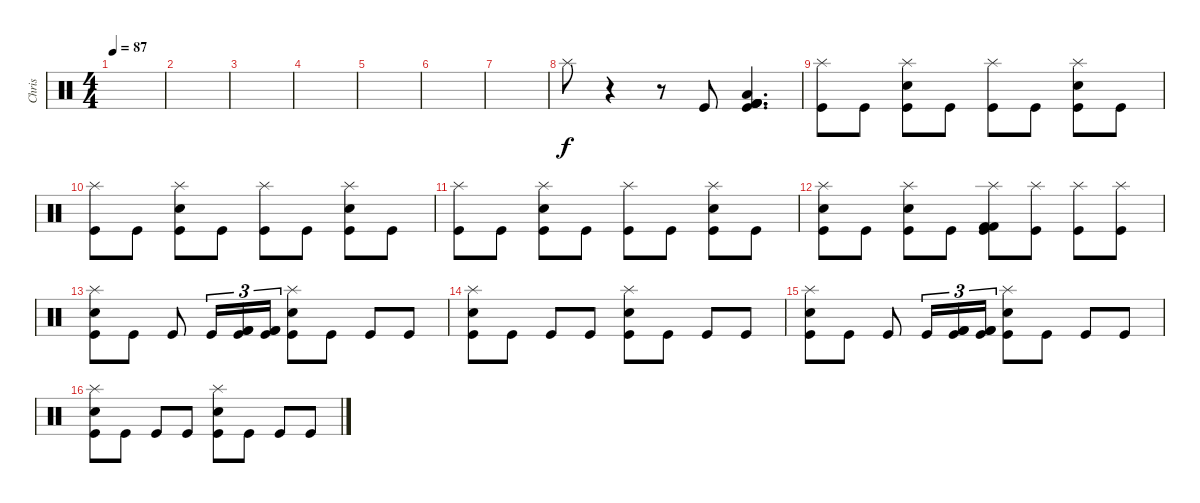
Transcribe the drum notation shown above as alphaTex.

\track ("Chris" "Chris") {instrument percussion}
\staff {score}
\articulation defaults
\ts (4 4)
\tempo 87
\clef neutral
\ks c
|
|
|
|
|
|
|
"Splash (hit)".8 r.4 r.8 "Kick (hit)".8 ("Kick (hit)" "Kick (hit) 2" "Kick (hit) 2" "Low Floor Tom (hit)" "Kick (hit) 2" "Kick (hit) 2").4{d} |
("Kick (hit)" "Splash (hit)").8 "Kick (hit)".8 ("Kick (hit)" "Splash (hit)" "Snare (hit) 2").8 "Kick (hit)".8 ("Kick (hit)" "Splash (hit)").8 "Kick (hit)".8 ("Kick (hit)" "Splash (hit)" "Snare (hit) 2").8 "Kick (hit)".8 |
("Kick (hit)" "Splash (hit)").8 "Kick (hit)".8 ("Kick (hit)" "Splash (hit)" "Snare (hit) 2").8 "Kick (hit)".8 ("Kick (hit)" "Splash (hit)").8 "Kick (hit)".8 ("Kick (hit)" "Splash (hit)" "Snare (hit) 2").8 "Kick (hit)".8 |
("Kick (hit)" "Splash (hit)").8 "Kick (hit)".8 ("Kick (hit)" "Splash (hit)" "Snare (hit) 2").8 "Kick (hit)".8 ("Kick (hit)" "Splash (hit)").8 "Kick (hit)".8 ("Kick (hit)" "Splash (hit)" "Snare (hit) 2").8 "Kick (hit)".8 |
("Kick (hit)" "Splash (hit)" "Snare (hit) 2").8 "Kick (hit)".8 ("Kick (hit)" "Splash (hit)" "Snare (hit) 2").8 "Kick (hit)".8 ("Kick (hit)" "Splash (hit)" "Kick (hit) 2" "Kick (hit) 2").8 ("Kick (hit)" "Splash (hit)").8 ("Kick (hit)" "Splash (hit)").8 ("Kick (hit)" "Splash (hit)").8 |
("Kick (hit)" "Splash (hit)" "Snare (hit) 2").8 "Kick (hit)".8 "Kick (hit)".8 "Kick (hit)".16{tu (3 2)} ("Kick (hit)" "Kick (hit) 2" "Kick (hit) 2").16{tu (3 2)} ("Kick (hit)" "Kick (hit) 2" "Kick (hit) 2").16{tu (3 2)} ("Kick (hit)" "Splash (hit)" "Snare (hit) 2").8 "Kick (hit)".8 "Kick (hit)".8 "Kick (hit)".8 |
("Kick (hit)" "Splash (hit)" "Snare (hit) 2").8 "Kick (hit)".8 "Kick (hit)".8 "Kick (hit)".8 ("Kick (hit)" "Splash (hit)" "Snare (hit) 2").8 "Kick (hit)".8 "Kick (hit)".8 "Kick (hit)".8 |
("Kick (hit)" "Splash (hit)" "Snare (hit) 2").8 "Kick (hit)".8 "Kick (hit)".8 "Kick (hit)".16{tu (3 2)} ("Kick (hit)" "Kick (hit) 2" "Kick (hit) 2").16{tu (3 2)} ("Kick (hit)" "Kick (hit) 2" "Kick (hit) 2").16{tu (3 2)} ("Kick (hit)" "Splash (hit)" "Snare (hit) 2").8 "Kick (hit)".8 "Kick (hit)".8 "Kick (hit)".8 |
("Kick (hit)" "Splash (hit)" "Snare (hit) 2").8 "Kick (hit)".8 "Kick (hit)".8 "Kick (hit)".8 ("Kick (hit)" "Splash (hit)" "Snare (hit) 2").8 "Kick (hit)".8 "Kick (hit)".8 "Kick (hit)".8
